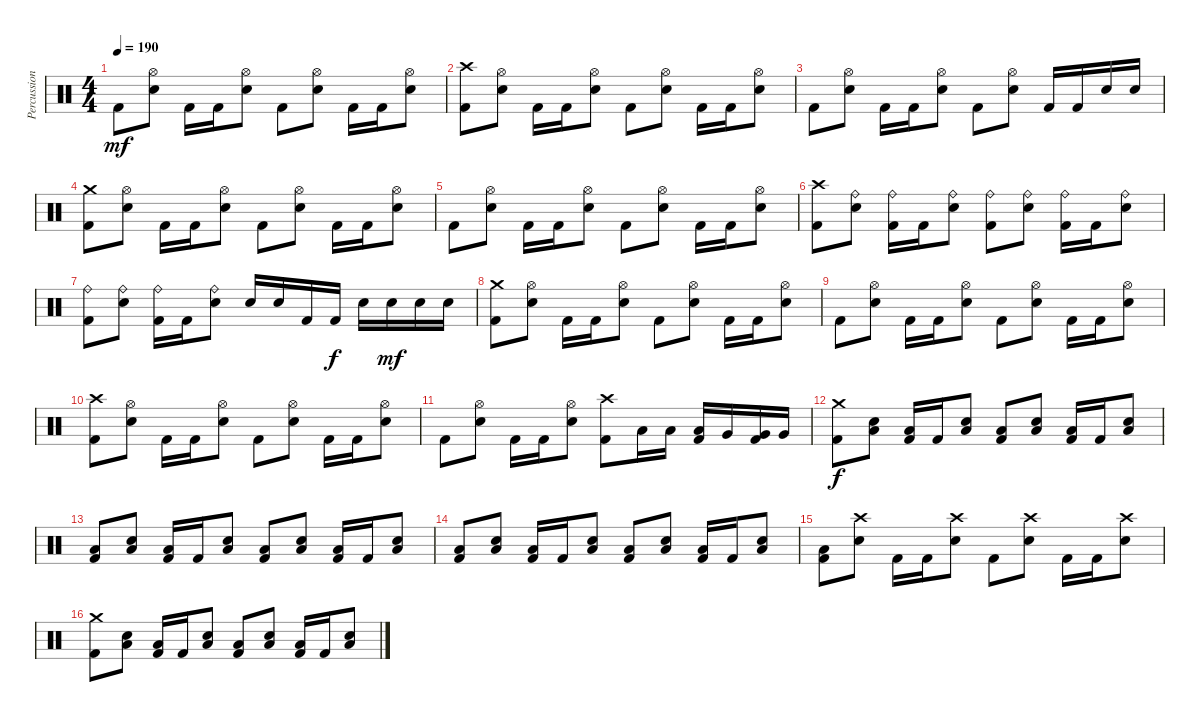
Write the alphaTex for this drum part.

\track ("Percussion" "Percussion") {instrument percussion}
\staff {score}
\articulation defaults
\ts (4 4)
\tempo 190
\clef neutral
\ks c "Kick (hit) 2".8{dy mf}
("Hi-Hat (open)" "Electric Snare (hit)").8 "Kick (hit) 2".16 "Kick (hit) 2".16 ("Hi-Hat (open)" "Electric Snare (hit)").8 "Kick (hit) 2".8 ("Hi-Hat (open)" "Electric Snare (hit)").8 "Kick (hit) 2".16 "Kick (hit) 2".16 ("Hi-Hat (open)" "Electric Snare (hit)").8 |
("Crash high (hit)" "Kick (hit) 2").8 ("Hi-Hat (open)" "Electric Snare (hit)").8 "Kick (hit) 2".16 "Kick (hit) 2".16 ("Hi-Hat (open)" "Electric Snare (hit)").8 "Kick (hit) 2".8 ("Hi-Hat (open)" "Electric Snare (hit)").8 "Kick (hit) 2".16 "Kick (hit) 2".16 ("Hi-Hat (open)" "Electric Snare (hit)").8 |
"Kick (hit) 2".8 ("Hi-Hat (open)" "Electric Snare (hit)").8 "Kick (hit) 2".16 "Kick (hit) 2".16 ("Hi-Hat (open)" "Electric Snare (hit)").8 "Kick (hit) 2".8 ("Hi-Hat (open)" "Electric Snare (hit)").8 "Kick (hit) 2".16 "Kick (hit) 2".16 "Electric Snare (hit)".16 "Electric Snare (hit)".16 |
("Crash medium (hit)" "Kick (hit) 2").8 ("Hi-Hat (open)" "Electric Snare (hit)").8 "Kick (hit) 2".16 "Kick (hit) 2".16 ("Hi-Hat (open)" "Electric Snare (hit)").8 "Kick (hit) 2".8 ("Hi-Hat (open)" "Electric Snare (hit)").8 "Kick (hit) 2".16 "Kick (hit) 2".16 ("Hi-Hat (open)" "Electric Snare (hit)").8 |
"Kick (hit) 2".8 ("Hi-Hat (open)" "Electric Snare (hit)").8 "Kick (hit) 2".16 "Kick (hit) 2".16 ("Hi-Hat (open)" "Electric Snare (hit)").8 "Kick (hit) 2".8 ("Hi-Hat (open)" "Electric Snare (hit)").8 "Kick (hit) 2".16 "Kick (hit) 2".16 ("Hi-Hat (open)" "Electric Snare (hit)").8 |
("Crash high (hit)" "Kick (hit) 2").8 ("Ride (bell)" "Electric Snare (hit)").8 ("Ride (bell)" "Kick (hit) 2").16 "Kick (hit) 2".16 ("Ride (bell)" "Electric Snare (hit)").8 ("Ride (bell)" "Kick (hit) 2").8 ("Ride (bell)" "Electric Snare (hit)").8 ("Ride (bell)" "Kick (hit) 2").16 "Kick (hit) 2".16 ("Ride (bell)" "Electric Snare (hit)").8 |
("Ride (bell)" "Kick (hit) 2").8 ("Ride (bell)" "Electric Snare (hit)").8 ("Ride (bell)" "Kick (hit) 2").16 "Kick (hit) 2".16 ("Ride (bell)" "Electric Snare (hit)").8 "Electric Snare (hit)".16 "Electric Snare (hit)".16 "Kick (hit) 2".16 "Kick (hit) 2".16{dy f} "Electric Snare (hit)".16 "Electric Snare (hit)".16{dy mf} "Electric Snare (hit)".16 "Electric Snare (hit)".16 |
("Crash medium (hit)" "Kick (hit) 2").8 ("Hi-Hat (open)" "Electric Snare (hit)").8 "Kick (hit) 2".16 "Kick (hit) 2".16 ("Hi-Hat (open)" "Electric Snare (hit)").8 "Kick (hit) 2".8 ("Hi-Hat (open)" "Electric Snare (hit)").8 "Kick (hit) 2".16 "Kick (hit) 2".16 ("Hi-Hat (open)" "Electric Snare (hit)").8 |
"Kick (hit) 2".8 ("Hi-Hat (open)" "Electric Snare (hit)").8 "Kick (hit) 2".16 "Kick (hit) 2".16 ("Hi-Hat (open)" "Electric Snare (hit)").8 "Kick (hit) 2".8 ("Hi-Hat (open)" "Electric Snare (hit)").8 "Kick (hit) 2".16 "Kick (hit) 2".16 ("Hi-Hat (open)" "Electric Snare (hit)").8 |
("Crash high (hit)" "Kick (hit) 2").8 ("Hi-Hat (open)" "Electric Snare (hit)").8 "Kick (hit) 2".16 "Kick (hit) 2".16 ("Hi-Hat (open)" "Electric Snare (hit)").8 "Kick (hit) 2".8 ("Hi-Hat (open)" "Electric Snare (hit)").8 "Kick (hit) 2".16 "Kick (hit) 2".16 ("Hi-Hat (open)" "Electric Snare (hit)").8 |
"Kick (hit) 2".8 ("Hi-Hat (open)" "Electric Snare (hit)").8 "Kick (hit) 2".16 "Kick (hit) 2".16 ("Hi-Hat (open)" "Electric Snare (hit)").8 ("Crash high (hit)" "Kick (hit) 2").8 "Low Tom (hit)".16 "Low Tom (hit)".16 ("Low Tom (hit)" "Kick (hit) 2").16 "Very Low Tom (hit)".16 ("Very Low Tom (hit)" "Kick (hit) 2").16 "Very Low Tom (hit)".16 |
("Crash medium (hit)" "Kick (hit) 2").8{dy f} ("Low Floor Tom (hit)" "Electric Snare (hit)").8 ("Low Floor Tom (hit)" "Kick (hit) 2").16 "Kick (hit) 2".16 ("Low Floor Tom (hit)" "Electric Snare (hit)").8 ("Low Floor Tom (hit)" "Kick (hit) 2").8 ("Low Floor Tom (hit)" "Electric Snare (hit)").8 ("Low Floor Tom (hit)" "Kick (hit) 2").16 "Kick (hit) 2".16 ("Low Floor Tom (hit)" "Electric Snare (hit)").8 |
("Low Floor Tom (hit)" "Kick (hit) 2").8 ("Low Floor Tom (hit)" "Electric Snare (hit)").8 ("Low Floor Tom (hit)" "Kick (hit) 2").16 "Kick (hit) 2".16 ("Low Floor Tom (hit)" "Electric Snare (hit)").8 ("Low Floor Tom (hit)" "Kick (hit) 2").8 ("Low Floor Tom (hit)" "Electric Snare (hit)").8 ("Low Floor Tom (hit)" "Kick (hit) 2").16 "Kick (hit) 2".16 ("Low Floor Tom (hit)" "Electric Snare (hit)").8 |
("Low Floor Tom (hit)" "Kick (hit) 2").8 ("Low Floor Tom (hit)" "Electric Snare (hit)").8 ("Low Floor Tom (hit)" "Kick (hit) 2").16 "Kick (hit) 2".16 ("Low Floor Tom (hit)" "Electric Snare (hit)").8 ("Low Floor Tom (hit)" "Kick (hit) 2").8 ("Low Floor Tom (hit)" "Electric Snare (hit)").8 ("Low Floor Tom (hit)" "Kick (hit) 2").16 "Kick (hit) 2".16 ("Low Floor Tom (hit)" "Electric Snare (hit)").8 |
("Low Floor Tom (hit)" "Kick (hit) 2").8 ("Crash high (hit)" "Electric Snare (hit)").8 "Kick (hit) 2".16 "Kick (hit) 2".16 ("Crash high (hit)" "Electric Snare (hit)").8 "Kick (hit) 2".8 ("Crash high (hit)" "Electric Snare (hit)").8 "Kick (hit) 2".16 "Kick (hit) 2".16 ("Crash high (hit)" "Electric Snare (hit)").8 |
("Crash medium (hit)" "Kick (hit) 2").8 ("Low Floor Tom (hit)" "Electric Snare (hit)").8 ("Low Floor Tom (hit)" "Kick (hit) 2").16 "Kick (hit) 2".16 ("Low Floor Tom (hit)" "Electric Snare (hit)").8 ("Low Floor Tom (hit)" "Kick (hit) 2").8 ("Low Floor Tom (hit)" "Electric Snare (hit)").8 ("Low Floor Tom (hit)" "Kick (hit) 2").16 "Kick (hit) 2".16 ("Low Floor Tom (hit)" "Electric Snare (hit)").8
